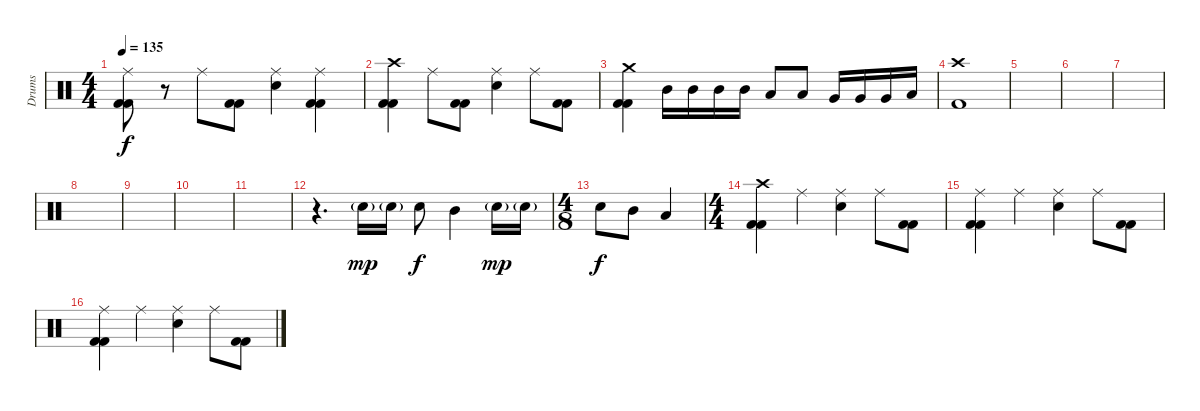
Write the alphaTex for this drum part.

\track ("Drums" "Drums") {instrument percussion}
\staff {score}
\articulation defaults
\ts (4 4)
\tempo 135
\clef neutral
\ks c
("Ride (middle)" "Kick (hit) 2" "Kick (hit) 2").8{dy f} r.8 "Ride (middle)".8 ("Kick (hit) 2" "Kick (hit) 2").8 ("Ride (middle)" "Electric Snare (hit)").4 ("Ride (middle)" "Kick (hit) 2" "Kick (hit) 2").4 |
("Crash high (hit)" "Kick (hit) 2" "Kick (hit) 2").4 "Ride (middle)".8 ("Kick (hit) 2" "Kick (hit) 2").8 ("Ride (middle)" "Electric Snare (hit)").4 "Ride (middle)".8 ("Kick (hit) 2" "Kick (hit) 2").8 |
("Crash medium (hit)" "Kick (hit) 2" "Kick (hit) 2").4 "Mid Tom (hit)".16 "Mid Tom (hit)".16 "Mid Tom (hit)".16 "Mid Tom (hit)".16 "Low Tom (hit)".8 "Low Tom (hit)".8 "Very Low Tom (hit)".16 "Very Low Tom (hit)".16 "Very Low Tom (hit)".16 "Low Floor Tom (hit)".16 |
("Crash high (hit)" "Kick (hit) 2").1 |
|
|
|
|
|
|
|
r.4{d} "Snare (hit) 2"{g}.16{dy mp} "Snare (hit) 2"{g}.16 "Electric Snare (hit)".8{dy f} "Mid Tom (hit)".4 "Snare (hit) 2"{g}.16{dy mp} "Snare (hit) 2"{g}.16 |
\ts (4 8)
"Electric Snare (hit)".8{dy f} "Mid Tom (hit)".8 "Low Tom (hit)".4 |
\ts (4 4)
("Crash high (hit)" "Kick (hit) 2" "Kick (hit) 2").4 "Ride (middle)".4 ("Ride (middle)" "Electric Snare (hit)").4 "Ride (middle)".8 ("Kick (hit) 2" "Kick (hit) 2").8 |
("Ride (middle)" "Kick (hit) 2" "Kick (hit) 2").4 "Ride (middle)".4 ("Ride (middle)" "Electric Snare (hit)").4 "Ride (middle)".8 ("Kick (hit) 2" "Kick (hit) 2").8 |
("Ride (middle)" "Kick (hit) 2" "Kick (hit) 2").4 "Ride (middle)".4 ("Ride (middle)" "Electric Snare (hit)").4 "Ride (middle)".8 ("Kick (hit) 2" "Kick (hit) 2").8
